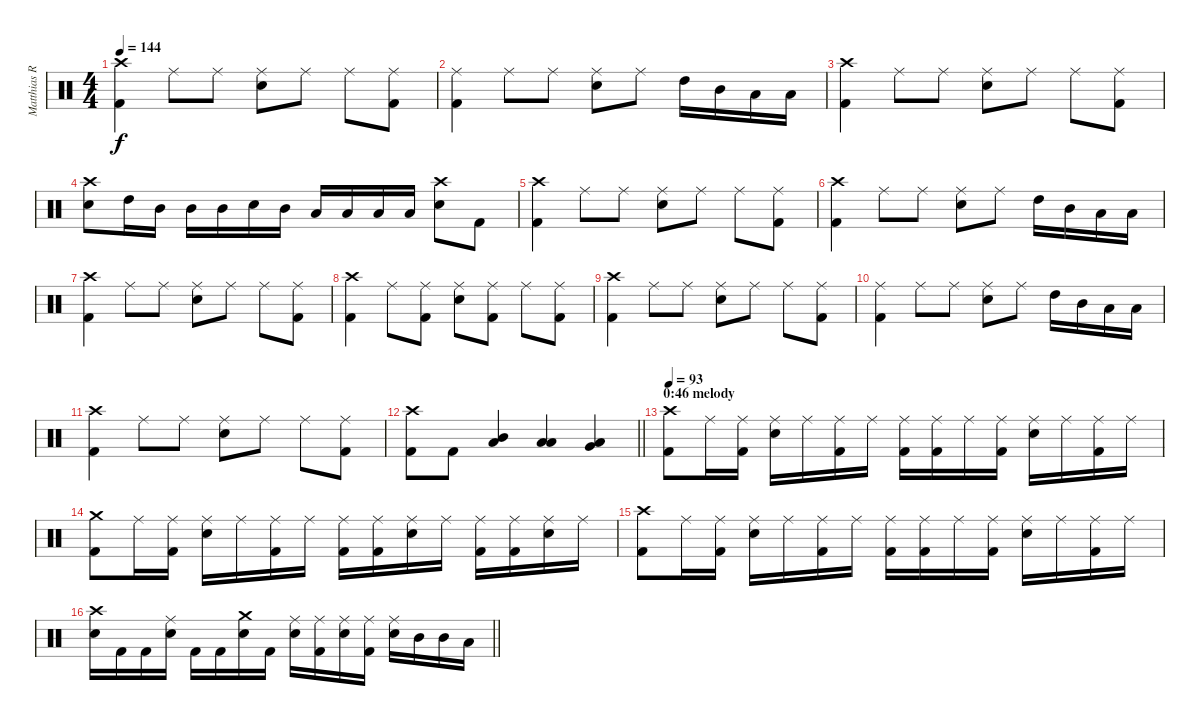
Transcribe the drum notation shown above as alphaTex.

\track ("Matthias R." "Matthias R") {instrument percussion}
\staff {score}
\articulation defaults
\ts (4 4)
\tempo 144
\clef neutral
\ks c
("Kick (hit) 2" "Crash high (hit)").4{dy f} "Ride (middle)".8 "Ride (middle)".8 ("Snare (hit) 2" "Ride (middle)").8 "Ride (middle)".8 "Ride (middle)".8 ("Kick (hit) 2" "Ride (middle)").8 |
("Kick (hit) 2" "Ride (middle)").4 "Ride (middle)".8 "Ride (middle)".8 ("Snare (hit) 2" "Ride (middle)").8 "Ride (middle)".8 "High Tom (hit)".16 "Mid Tom (hit)".16 "Low Tom (hit)".16 "Low Tom (hit)".16 |
("Kick (hit) 2" "Crash high (hit)").4 "Ride (middle)".8 "Ride (middle)".8 ("Snare (hit) 2" "Ride (middle)").8 "Ride (middle)".8 "Ride (middle)".8 ("Kick (hit) 2" "Ride (middle)").8 |
("Snare (hit) 2" "Crash high (hit)").8 "High Tom (hit)".16 "Mid Tom (hit)".16 "Mid Tom (hit)".16 "Mid Tom (hit)".16 "Snare (hit) 2".16 "Mid Tom (hit)".16 "Low Tom (hit)".16 "Low Tom (hit)".16 "Low Tom (hit)".16 "Low Tom (hit)".16 ("Snare (hit) 2" "Crash high (hit)").8 "Kick (hit) 2".8 |
("Kick (hit) 2" "Crash high (hit)").4 "Ride (middle)".8 "Ride (middle)".8 ("Snare (hit) 2" "Ride (middle)").8 "Ride (middle)".8 "Ride (middle)".8 ("Kick (hit) 2" "Ride (middle)").8 |
("Kick (hit) 2" "Crash high (hit)").4 "Ride (middle)".8 "Ride (middle)".8 ("Snare (hit) 2" "Ride (middle)").8 "Ride (middle)".8 "High Tom (hit)".16 "Mid Tom (hit)".16 "Low Tom (hit)".16 "Low Tom (hit)".16 |
("Kick (hit) 2" "Crash high (hit)").4 "Ride (middle)".8 "Ride (middle)".8 ("Snare (hit) 2" "Ride (middle)").8 "Ride (middle)".8 "Ride (middle)".8 ("Kick (hit) 2" "Ride (middle)").8 |
("Kick (hit) 2" "Crash high (hit)").4 "Ride (middle)".8 ("Kick (hit) 2" "Ride (middle)").8 ("Snare (hit) 2" "Ride (middle)").8 ("Kick (hit) 2" "Ride (middle)").8 "Ride (middle)".8 ("Kick (hit) 2" "Ride (middle)").8 |
("Kick (hit) 2" "Crash high (hit)").4 "Ride (middle)".8 "Ride (middle)".8 ("Snare (hit) 2" "Ride (middle)").8 "Ride (middle)".8 "Ride (middle)".8 ("Kick (hit) 2" "Ride (middle)").8 |
("Kick (hit) 2" "Ride (middle)").4 "Ride (middle)".8 "Ride (middle)".8 ("Snare (hit) 2" "Ride (middle)").8 "Ride (middle)".8 "High Tom (hit)".16 "Mid Tom (hit)".16 "Low Tom (hit)".16 "Low Tom (hit)".16 |
("Kick (hit) 2" "Crash high (hit)").4 "Ride (middle)".8 "Ride (middle)".8 ("Snare (hit) 2" "Ride (middle)").8 "Ride (middle)".8 "Ride (middle)".8 ("Kick (hit) 2" "Ride (middle)").8 |
\barLineRight lightlight
("Kick (hit) 2" "Crash high (hit)").8 "Kick (hit) 2".8 ("Mid Tom (hit)" "Low Tom (hit)").4 ("Low Tom (hit)" "Low Tom (hit)").4 ("Low Tom (hit)" "Very Low Tom (hit)").4 |
\section ("" "0:46 melody")
\tempo 93
("Kick (hit) 2" "Crash high (hit)").8 "Ride (middle)".16 ("Kick (hit) 2" "Ride (middle)").16 ("Snare (hit) 2" "Ride (middle)").16 "Ride (middle)".16 ("Kick (hit) 2" "Ride (middle)").16 "Ride (middle)".16 ("Kick (hit) 2" "Ride (middle)").16 ("Kick (hit) 2" "Ride (middle)").16 "Ride (middle)".16 ("Kick (hit) 2" "Ride (middle)").16 ("Snare (hit) 2" "Ride (middle)").16 "Ride (middle)".16 ("Kick (hit) 2" "Ride (middle)").16 "Ride (middle)".16 |
("Kick (hit) 2" "Crash medium (hit)").8 "Ride (middle)".16 ("Kick (hit) 2" "Ride (middle)").16 ("Snare (hit) 2" "Ride (middle)").16 "Ride (middle)".16 ("Kick (hit) 2" "Ride (middle)").16 "Ride (middle)".16 ("Kick (hit) 2" "Ride (middle)").16 ("Kick (hit) 2" "Ride (middle)").16 ("Snare (hit) 2" "Ride (middle)").16 "Ride (middle)".16 ("Kick (hit) 2" "Ride (middle)").16 ("Kick (hit) 2" "Ride (middle)").16 ("Snare (hit) 2" "Ride (middle)").16 "Ride (middle)".16 |
("Kick (hit) 2" "Crash high (hit)").8 "Ride (middle)".16 ("Kick (hit) 2" "Ride (middle)").16 ("Snare (hit) 2" "Ride (middle)").16 "Ride (middle)".16 ("Kick (hit) 2" "Ride (middle)").16 "Ride (middle)".16 ("Kick (hit) 2" "Ride (middle)").16 ("Kick (hit) 2" "Ride (middle)").16 "Ride (middle)".16 ("Kick (hit) 2" "Ride (middle)").16 ("Snare (hit) 2" "Ride (middle)").16 "Ride (middle)".16 ("Kick (hit) 2" "Ride (middle)").16 "Ride (middle)".16 |
\barLineRight lightlight
("Snare (hit) 2" "Crash high (hit)").16 "Kick (hit) 2".16 "Kick (hit) 2".16 ("Snare (hit) 2" "Ride (middle)").16 "Kick (hit) 2".16 "Kick (hit) 2".16 ("Snare (hit) 2" "Crash medium (hit)").16 "Kick (hit) 2".16 ("Snare (hit) 2" "Ride (middle)").16 ("Kick (hit) 2" "Ride (middle)").16 ("Snare (hit) 2" "Ride (middle)").16 ("Kick (hit) 2" "Ride (middle)").16 ("Snare (hit) 2" "Ride (middle)").16 "Mid Tom (hit)".16 "Mid Tom (hit)".16 "Low Tom (hit)".16
